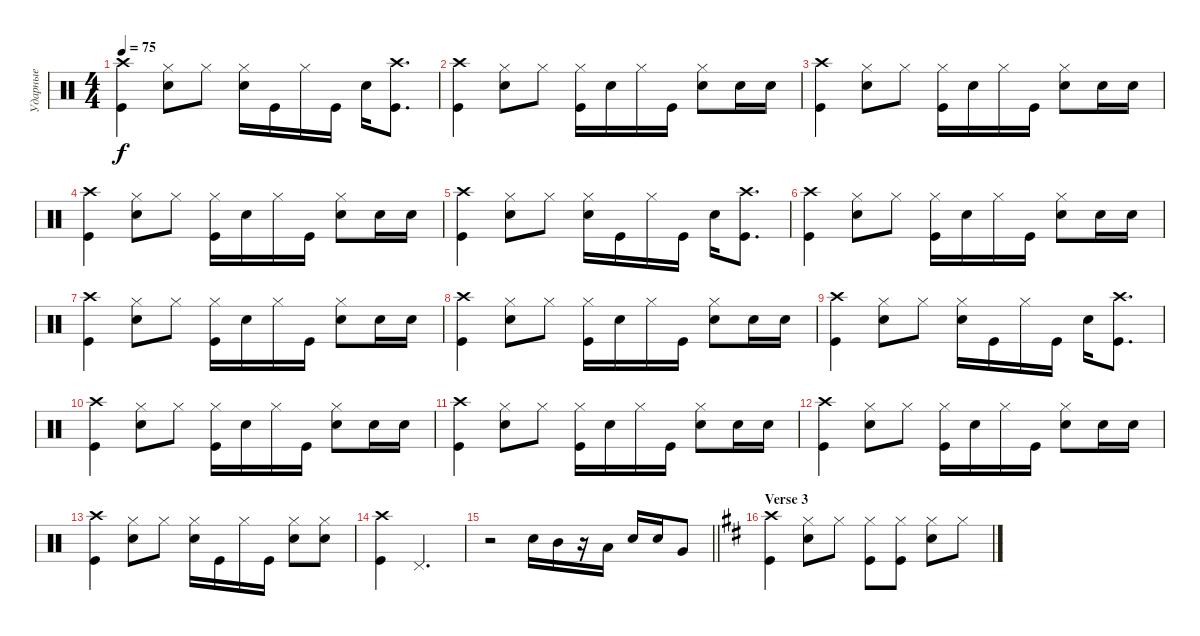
\track ("Ударные" "Ударные") {instrument percussion}
\staff {score}
\articulation defaults
\ts (4 4)
\tempo 75
\clef neutral
\ks c
("Crash high (hit)" "Kick (hit)").4{dy f} ("Snare (hit) 2" "Hi-Hat (closed)").8 "Hi-Hat (closed)".8 ("Snare (hit) 2" "Hi-Hat (closed)").16 "Kick (hit)".16 "Hi-Hat (closed)".16 "Kick (hit)".16 "Snare (hit) 2".16 ("Kick (hit)" "Crash high (hit)").8{d} |
("Crash high (hit)" "Kick (hit)").4 ("Snare (hit) 2" "Hi-Hat (closed)").8 "Hi-Hat (closed)".8 ("Kick (hit)" "Hi-Hat (closed)").16 "Snare (hit) 2".16 "Hi-Hat (closed)".16 "Kick (hit)".16 ("Snare (hit) 2" "Hi-Hat (closed)").8 "Snare (hit) 2".16 "Snare (hit) 2".16 |
("Crash high (hit)" "Kick (hit)").4 ("Snare (hit) 2" "Hi-Hat (closed)").8 "Hi-Hat (closed)".8 ("Kick (hit)" "Hi-Hat (closed)").16 "Snare (hit) 2".16 "Hi-Hat (closed)".16 "Kick (hit)".16 ("Snare (hit) 2" "Hi-Hat (closed)").8 "Snare (hit) 2".16 "Snare (hit) 2".16 |
("Crash high (hit)" "Kick (hit)").4 ("Snare (hit) 2" "Hi-Hat (closed)").8 "Hi-Hat (closed)".8 ("Kick (hit)" "Hi-Hat (closed)").16 "Snare (hit) 2".16 "Hi-Hat (closed)".16 "Kick (hit)".16 ("Snare (hit) 2" "Hi-Hat (closed)").8 "Snare (hit) 2".16 "Snare (hit) 2".16 |
("Crash high (hit)" "Kick (hit)").4 ("Snare (hit) 2" "Hi-Hat (closed)").8 "Hi-Hat (closed)".8 ("Snare (hit) 2" "Hi-Hat (closed)").16 "Kick (hit)".16 "Hi-Hat (closed)".16 "Kick (hit)".16 "Snare (hit) 2".16 ("Kick (hit)" "Crash high (hit)").8{d} |
("Crash high (hit)" "Kick (hit)").4 ("Snare (hit) 2" "Hi-Hat (closed)").8 "Hi-Hat (closed)".8 ("Kick (hit)" "Hi-Hat (closed)").16 "Snare (hit) 2".16 "Hi-Hat (closed)".16 "Kick (hit)".16 ("Snare (hit) 2" "Hi-Hat (closed)").8 "Snare (hit) 2".16 "Snare (hit) 2".16 |
("Crash high (hit)" "Kick (hit)").4 ("Snare (hit) 2" "Hi-Hat (closed)").8 "Hi-Hat (closed)".8 ("Kick (hit)" "Hi-Hat (closed)").16 "Snare (hit) 2".16 "Hi-Hat (closed)".16 "Kick (hit)".16 ("Snare (hit) 2" "Hi-Hat (closed)").8 "Snare (hit) 2".16 "Snare (hit) 2".16 |
("Crash high (hit)" "Kick (hit)").4 ("Snare (hit) 2" "Hi-Hat (closed)").8 "Hi-Hat (closed)".8 ("Kick (hit)" "Hi-Hat (closed)").16 "Snare (hit) 2".16 "Hi-Hat (closed)".16 "Kick (hit)".16 ("Snare (hit) 2" "Hi-Hat (closed)").8 "Snare (hit) 2".16 "Snare (hit) 2".16 |
("Crash high (hit)" "Kick (hit)").4 ("Snare (hit) 2" "Hi-Hat (closed)").8 "Hi-Hat (closed)".8 ("Snare (hit) 2" "Hi-Hat (closed)").16 "Kick (hit)".16 "Hi-Hat (closed)".16 "Kick (hit)".16 "Snare (hit) 2".16 ("Kick (hit)" "Crash high (hit)").8{d} |
("Crash high (hit)" "Kick (hit)").4 ("Snare (hit) 2" "Hi-Hat (closed)").8 "Hi-Hat (closed)".8 ("Kick (hit)" "Hi-Hat (closed)").16 "Snare (hit) 2".16 "Hi-Hat (closed)".16 "Kick (hit)".16 ("Snare (hit) 2" "Hi-Hat (closed)").8 "Snare (hit) 2".16 "Snare (hit) 2".16 |
("Crash high (hit)" "Kick (hit)").4 ("Snare (hit) 2" "Hi-Hat (closed)").8 "Hi-Hat (closed)".8 ("Kick (hit)" "Hi-Hat (closed)").16 "Snare (hit) 2".16 "Hi-Hat (closed)".16 "Kick (hit)".16 ("Snare (hit) 2" "Hi-Hat (closed)").8 "Snare (hit) 2".16 "Snare (hit) 2".16 |
("Crash high (hit)" "Kick (hit)").4 ("Snare (hit) 2" "Hi-Hat (closed)").8 "Hi-Hat (closed)".8 ("Kick (hit)" "Hi-Hat (closed)").16 "Snare (hit) 2".16 "Hi-Hat (closed)".16 "Kick (hit)".16 ("Snare (hit) 2" "Hi-Hat (closed)").8 "Snare (hit) 2".16 "Snare (hit) 2".16 |
("Crash high (hit)" "Kick (hit)").4 ("Snare (hit) 2" "Hi-Hat (closed)").8 "Hi-Hat (closed)".8 ("Snare (hit) 2" "Hi-Hat (closed)").16 "Kick (hit)".16 "Hi-Hat (closed)".16 "Kick (hit)".16 ("Snare (hit) 2" "Hi-Hat (closed)").8 ("Hi-Hat (closed)" "Snare (hit) 2").8 |
("Kick (hit)" "Crash high (hit)").4 "Pedal Hi-Hat (hit)".2{d} |
\barLineRight lightlight
r.2 "Snare (hit) 2".16 "Mid Tom (hit)".16 r.16 "Low Tom (hit)".16 "Snare (hit) 2".16 "Snare (hit) 2".16 "Very Low Tom (hit)".8 |
\section ("" "Verse 3")
\ks bminor
("Kick (hit)" "Crash high (hit)").4 ("Hi-Hat (closed)" "Snare (hit) 2").8 "Hi-Hat (closed)".8 ("Hi-Hat (closed)" "Kick (hit)").8 ("Hi-Hat (closed)" "Kick (hit)").8 ("Hi-Hat (closed)" "Snare (hit) 2").8 "Hi-Hat (closed)".8
